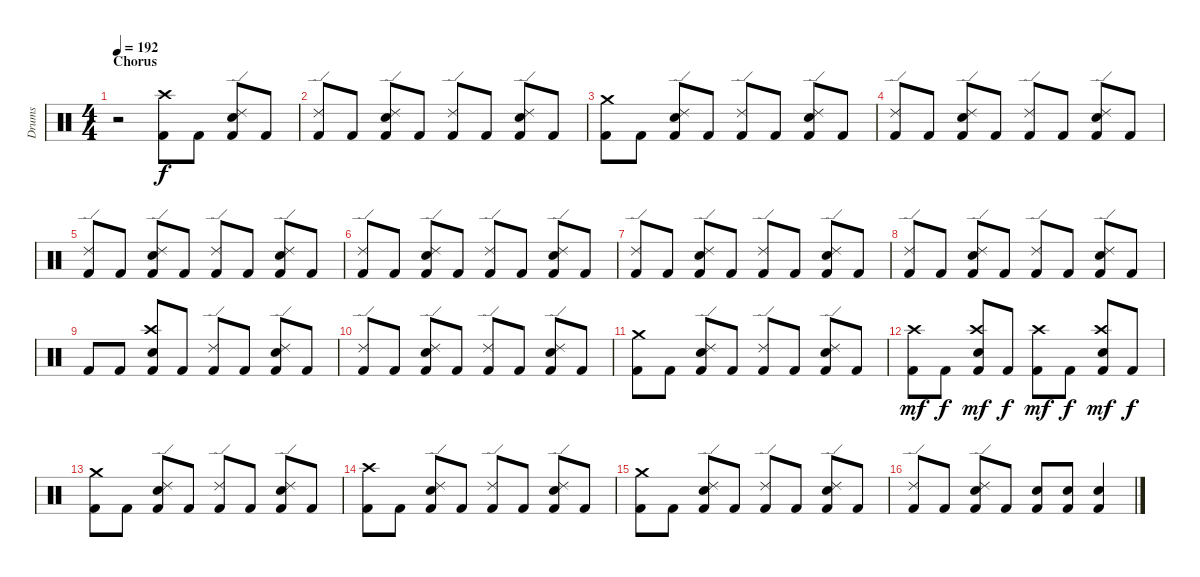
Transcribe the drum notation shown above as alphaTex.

\track ("Drums" "Drums") {instrument percussion}
\staff {score}
\articulation defaults
\ts (4 4)
\section ("" "Chorus")
\tempo 192
\clef neutral
\ks c
r.2{dy f} ("Kick (hit) 2" "Crash high (hit)").8 "Kick (hit) 2".8 ("Kick (hit) 2" "Electric Snare (hit)" "Ride (edge) 2").8 "Kick (hit) 2".8 |
("Kick (hit) 2" "Ride (edge) 2").8 "Kick (hit) 2".8 ("Kick (hit) 2" "Electric Snare (hit)" "Ride (edge) 2").8 "Kick (hit) 2".8 ("Kick (hit) 2" "Ride (edge) 2").8 "Kick (hit) 2".8 ("Kick (hit) 2" "Electric Snare (hit)" "Ride (edge) 2").8 "Kick (hit) 2".8 |
("Kick (hit) 2" "Crash medium (hit)").8 "Kick (hit) 2".8 ("Kick (hit) 2" "Electric Snare (hit)" "Ride (edge) 2").8 "Kick (hit) 2".8 ("Kick (hit) 2" "Ride (edge) 2").8 "Kick (hit) 2".8 ("Kick (hit) 2" "Electric Snare (hit)" "Ride (edge) 2").8 "Kick (hit) 2".8 |
("Kick (hit) 2" "Ride (edge) 2").8 "Kick (hit) 2".8 ("Kick (hit) 2" "Electric Snare (hit)" "Ride (edge) 2").8 "Kick (hit) 2".8 ("Kick (hit) 2" "Ride (edge) 2").8 "Kick (hit) 2".8 ("Kick (hit) 2" "Electric Snare (hit)" "Ride (edge) 2").8 "Kick (hit) 2".8 |
("Kick (hit) 2" "Ride (edge) 2").8 "Kick (hit) 2".8 ("Kick (hit) 2" "Electric Snare (hit)" "Ride (edge) 2").8 "Kick (hit) 2".8 ("Kick (hit) 2" "Ride (edge) 2").8 "Kick (hit) 2".8 ("Kick (hit) 2" "Electric Snare (hit)" "Ride (edge) 2").8 "Kick (hit) 2".8 |
("Kick (hit) 2" "Ride (edge) 2").8 "Kick (hit) 2".8 ("Kick (hit) 2" "Electric Snare (hit)" "Ride (edge) 2").8 "Kick (hit) 2".8 ("Kick (hit) 2" "Ride (edge) 2").8 "Kick (hit) 2".8 ("Kick (hit) 2" "Electric Snare (hit)" "Ride (edge) 2").8 "Kick (hit) 2".8 |
("Kick (hit) 2" "Ride (edge) 2").8 "Kick (hit) 2".8 ("Kick (hit) 2" "Electric Snare (hit)" "Ride (edge) 2").8 "Kick (hit) 2".8 ("Kick (hit) 2" "Ride (edge) 2").8 "Kick (hit) 2".8 ("Kick (hit) 2" "Electric Snare (hit)" "Ride (edge) 2").8 "Kick (hit) 2".8 |
("Kick (hit) 2" "Ride (edge) 2").8 "Kick (hit) 2".8 ("Kick (hit) 2" "Electric Snare (hit)" "Ride (edge) 2").8 "Kick (hit) 2".8 ("Kick (hit) 2" "Ride (edge) 2").8 "Kick (hit) 2".8 ("Kick (hit) 2" "Electric Snare (hit)" "Ride (edge) 2").8 "Kick (hit) 2".8 |
"Kick (hit) 2".8 "Kick (hit) 2".8 ("Kick (hit) 2" "Electric Snare (hit)" "Crash high (hit)").8 "Kick (hit) 2".8 ("Kick (hit) 2" "Ride (edge) 2").8 "Kick (hit) 2".8 ("Kick (hit) 2" "Electric Snare (hit)" "Ride (edge) 2").8 "Kick (hit) 2".8 |
("Kick (hit) 2" "Ride (edge) 2").8 "Kick (hit) 2".8 ("Kick (hit) 2" "Electric Snare (hit)" "Ride (edge) 2").8 "Kick (hit) 2".8 ("Kick (hit) 2" "Ride (edge) 2").8 "Kick (hit) 2".8 ("Kick (hit) 2" "Electric Snare (hit)" "Ride (edge) 2").8 "Kick (hit) 2".8 |
("Kick (hit) 2" "Crash medium (hit)").8 "Kick (hit) 2".8 ("Kick (hit) 2" "Electric Snare (hit)" "Ride (edge) 2").8 "Kick (hit) 2".8 ("Kick (hit) 2" "Ride (edge) 2").8 "Kick (hit) 2".8 ("Kick (hit) 2" "Electric Snare (hit)" "Ride (edge) 2").8 "Kick (hit) 2".8 |
("Kick (hit) 2" "Crash high (hit)").8{dy mf} "Kick (hit) 2".8{dy f} ("Kick (hit) 2" "Electric Snare (hit)" "Crash high (hit)").8{dy mf} "Kick (hit) 2".8{dy f} ("Kick (hit) 2" "Crash high (hit)").8{dy mf} "Kick (hit) 2".8{dy f} ("Kick (hit) 2" "Electric Snare (hit)" "Crash high (hit)").8{dy mf} "Kick (hit) 2".8{dy f} |
("Kick (hit) 2" "Crash medium (hit)").8 "Kick (hit) 2".8 ("Kick (hit) 2" "Electric Snare (hit)" "Ride (edge) 2").8 "Kick (hit) 2".8 ("Kick (hit) 2" "Ride (edge) 2").8 "Kick (hit) 2".8 ("Kick (hit) 2" "Electric Snare (hit)" "Ride (edge) 2").8 "Kick (hit) 2".8 |
("Kick (hit) 2" "Crash high (hit)").8 "Kick (hit) 2".8 ("Kick (hit) 2" "Electric Snare (hit)" "Ride (edge) 2").8 "Kick (hit) 2".8 ("Kick (hit) 2" "Ride (edge) 2").8 "Kick (hit) 2".8 ("Kick (hit) 2" "Electric Snare (hit)" "Ride (edge) 2").8 "Kick (hit) 2".8 |
("Kick (hit) 2" "Crash medium (hit)").8 "Kick (hit) 2".8 ("Kick (hit) 2" "Electric Snare (hit)" "Ride (edge) 2").8 "Kick (hit) 2".8 ("Kick (hit) 2" "Ride (edge) 2").8 "Kick (hit) 2".8 ("Kick (hit) 2" "Electric Snare (hit)" "Ride (edge) 2").8 "Kick (hit) 2".8 |
("Kick (hit) 2" "Ride (edge) 2").8 "Kick (hit) 2".8 ("Kick (hit) 2" "Electric Snare (hit)" "Ride (edge) 2").8 "Kick (hit) 2".8 ("Kick (hit) 2" "Electric Snare (hit)").8 ("Kick (hit) 2" "Electric Snare (hit)").8 ("Kick (hit) 2" "Electric Snare (hit)").4
